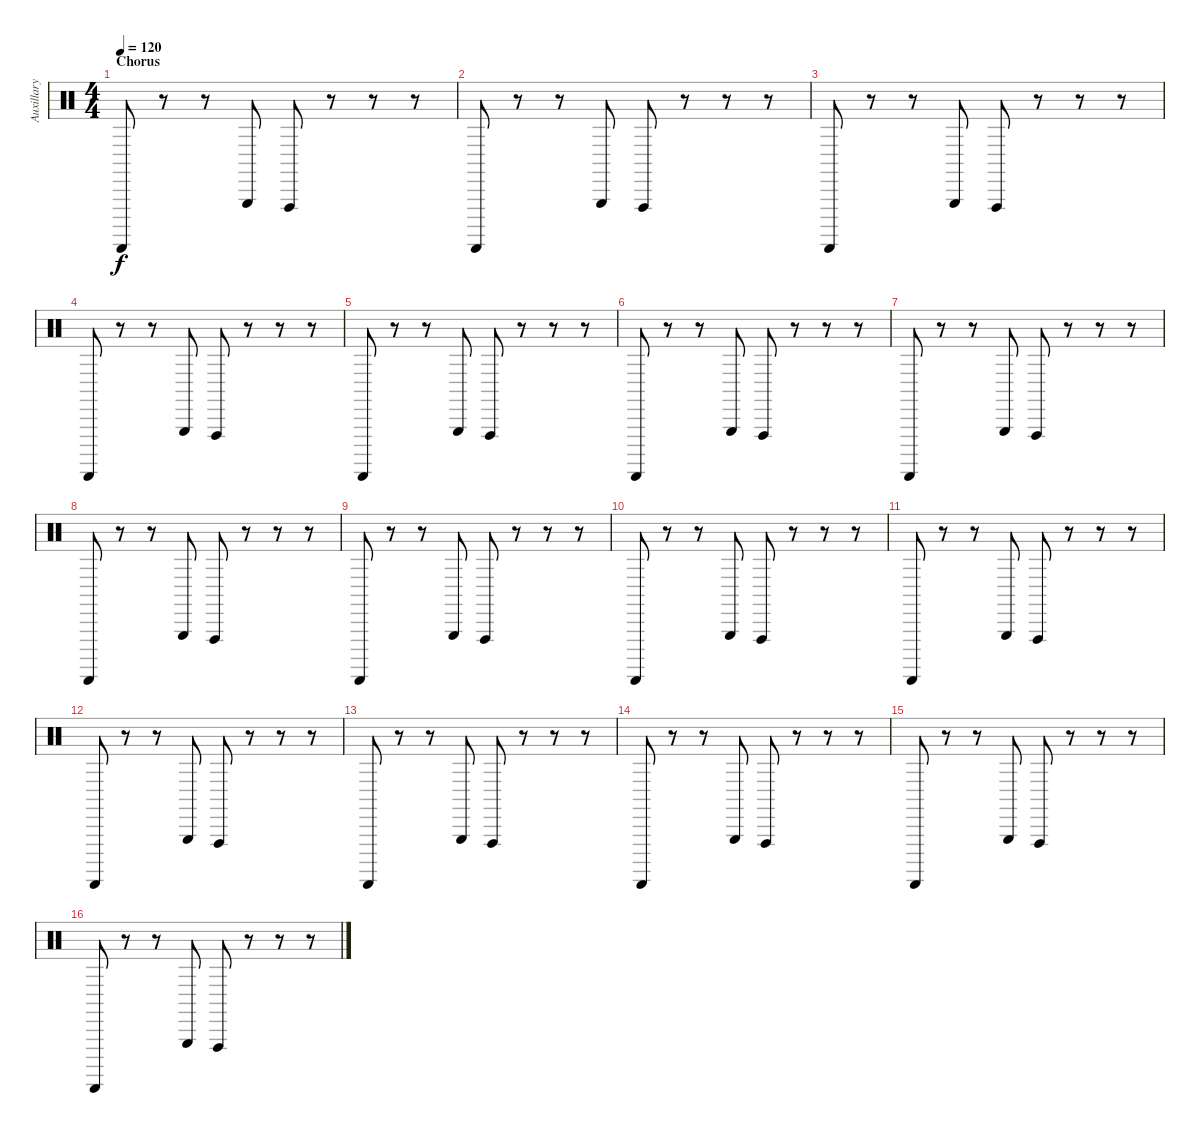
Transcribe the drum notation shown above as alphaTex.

\track ("Auxillary 2" "Auxillary ") {instrument percussion}
\staff {score}
\articulation defaults
\ts (4 4)
\section ("" "Chorus")
\tempo 120
\clef neutral
\ks c "Guiro (scrap-return)".8{dy f}
r.8 r.8 "Triangle (hit)".8 "Vibraslap (hit)".8 r.8 r.8 r.8 |
"Guiro (scrap-return)".8 r.8 r.8 "Triangle (hit)".8 "Vibraslap (hit)".8 r.8 r.8 r.8 |
"Guiro (scrap-return)".8 r.8 r.8 "Triangle (hit)".8 "Vibraslap (hit)".8 r.8 r.8 r.8 |
"Guiro (scrap-return)".8 r.8 r.8 "Triangle (hit)".8 "Vibraslap (hit)".8 r.8 r.8 r.8 |
"Guiro (scrap-return)".8 r.8 r.8 "Triangle (hit)".8 "Vibraslap (hit)".8 r.8 r.8 r.8 |
"Guiro (scrap-return)".8 r.8 r.8 "Triangle (hit)".8 "Vibraslap (hit)".8 r.8 r.8 r.8 |
"Guiro (scrap-return)".8 r.8 r.8 "Triangle (hit)".8 "Vibraslap (hit)".8 r.8 r.8 r.8 |
"Guiro (scrap-return)".8 r.8 r.8 "Triangle (hit)".8 "Vibraslap (hit)".8 r.8 r.8 r.8 |
"Guiro (scrap-return)".8 r.8 r.8 "Triangle (hit)".8 "Vibraslap (hit)".8 r.8 r.8 r.8 |
"Guiro (scrap-return)".8 r.8 r.8 "Triangle (hit)".8 "Vibraslap (hit)".8 r.8 r.8 r.8 |
"Guiro (scrap-return)".8 r.8 r.8 "Triangle (hit)".8 "Vibraslap (hit)".8 r.8 r.8 r.8 |
"Guiro (scrap-return)".8 r.8 r.8 "Triangle (hit)".8 "Vibraslap (hit)".8 r.8 r.8 r.8 |
"Guiro (scrap-return)".8 r.8 r.8 "Triangle (hit)".8 "Vibraslap (hit)".8 r.8 r.8 r.8 |
"Guiro (scrap-return)".8 r.8 r.8 "Triangle (hit)".8 "Vibraslap (hit)".8 r.8 r.8 r.8 |
"Guiro (scrap-return)".8 r.8 r.8 "Triangle (hit)".8 "Vibraslap (hit)".8 r.8 r.8 r.8 |
"Guiro (scrap-return)".8 r.8 r.8 "Triangle (hit)".8 "Vibraslap (hit)".8 r.8 r.8 r.8
